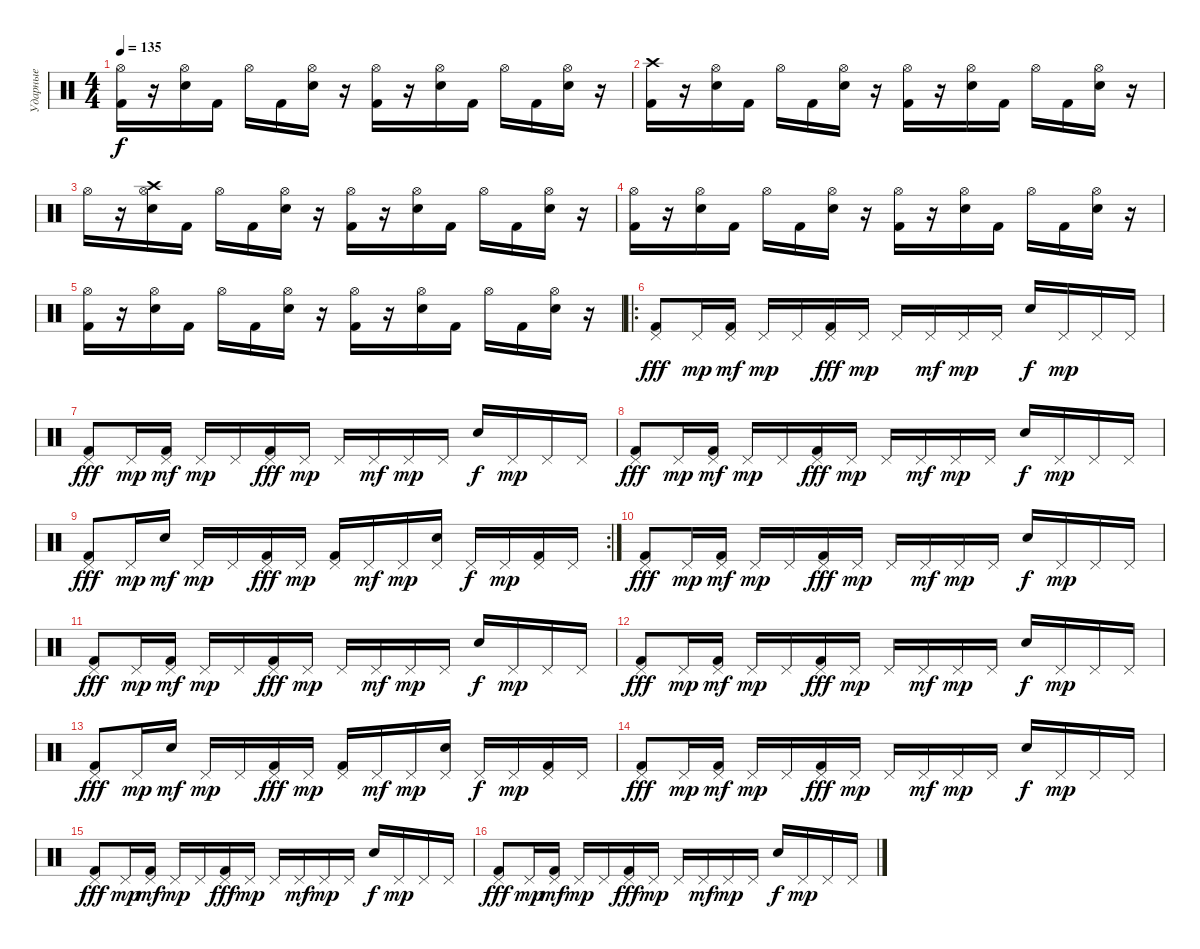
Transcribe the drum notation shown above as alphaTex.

\track ("Ударные" "Ударные") {instrument percussion}
\staff {score}
\articulation defaults
\ts (4 4)
\tempo 135
\clef neutral
\ks c
("Hi-Hat (open)" "Kick (hit) 2").16{dy f} r.16 ("Hi-Hat (open)" "Electric Snare (hit)").16 "Kick (hit) 2".16 "Hi-Hat (open)".16 "Kick (hit) 2".16 ("Hi-Hat (open)" "Electric Snare (hit)").16 r.16 ("Hi-Hat (open)" "Kick (hit) 2").16 r.16 ("Hi-Hat (open)" "Electric Snare (hit)").16 "Kick (hit) 2".16 "Hi-Hat (open)".16 "Kick (hit) 2".16 ("Hi-Hat (open)" "Electric Snare (hit)").16 r.16 |
("Crash high (hit)" "Kick (hit) 2").16 r.16 ("Hi-Hat (open)" "Electric Snare (hit)").16 "Kick (hit) 2".16 "Hi-Hat (open)".16 "Kick (hit) 2".16 ("Hi-Hat (open)" "Electric Snare (hit)").16 r.16 ("Hi-Hat (open)" "Kick (hit) 2").16 r.16 ("Hi-Hat (open)" "Electric Snare (hit)").16 "Kick (hit) 2".16 "Hi-Hat (open)".16 "Kick (hit) 2".16 ("Hi-Hat (open)" "Electric Snare (hit)").16 r.16 |
"Hi-Hat (open)".16 r.16 ("Hi-Hat (open)" "Crash high (hit)" "Electric Snare (hit)").16 "Kick (hit) 2".16 "Hi-Hat (open)".16 "Kick (hit) 2".16 ("Hi-Hat (open)" "Electric Snare (hit)").16 r.16 ("Hi-Hat (open)" "Kick (hit) 2").16 r.16 ("Hi-Hat (open)" "Electric Snare (hit)").16 "Kick (hit) 2".16 "Hi-Hat (open)".16 "Kick (hit) 2".16 ("Hi-Hat (open)" "Electric Snare (hit)").16 r.16 |
("Hi-Hat (open)" "Kick (hit) 2").16 r.16 ("Hi-Hat (open)" "Electric Snare (hit)").16 "Kick (hit) 2".16 "Hi-Hat (open)".16 "Kick (hit) 2".16 ("Hi-Hat (open)" "Electric Snare (hit)").16 r.16 ("Hi-Hat (open)" "Kick (hit) 2").16 r.16 ("Hi-Hat (open)" "Electric Snare (hit)").16 "Kick (hit) 2".16 "Hi-Hat (open)".16 "Kick (hit) 2".16 ("Hi-Hat (open)" "Electric Snare (hit)").16 r.16 |
("Hi-Hat (open)" "Kick (hit) 2").16 r.16 ("Hi-Hat (open)" "Electric Snare (hit)").16 "Kick (hit) 2".16 "Hi-Hat (open)".16 "Kick (hit) 2".16 ("Hi-Hat (open)" "Electric Snare (hit)").16 r.16 ("Hi-Hat (open)" "Kick (hit) 2").16 r.16 ("Hi-Hat (open)" "Electric Snare (hit)").16 "Kick (hit) 2".16 "Hi-Hat (open)".16 "Kick (hit) 2".16 ("Hi-Hat (open)" "Electric Snare (hit)").16 r.16 |
\ro
("Pedal Hi-Hat (hit)" "Kick (hit) 2").8{dy fff volume 16} "Pedal Hi-Hat (hit)".16{dy mp} ("Pedal Hi-Hat (hit)" "Kick (hit) 2").16{dy mf} "Pedal Hi-Hat (hit)".16{dy mp} "Pedal Hi-Hat (hit)".16 ("Pedal Hi-Hat (hit)" "Kick (hit) 2").16{dy fff} "Pedal Hi-Hat (hit)".16{dy mp} "Pedal Hi-Hat (hit)".16 "Pedal Hi-Hat (hit)".16{dy mf} "Pedal Hi-Hat (hit)".16{dy mp} "Pedal Hi-Hat (hit)".16 "Electric Snare (hit)".16{dy f} "Pedal Hi-Hat (hit)".16{dy mp} "Pedal Hi-Hat (hit)".16 "Pedal Hi-Hat (hit)".16 |
("Pedal Hi-Hat (hit)" "Kick (hit) 2").8{dy fff volume 16} "Pedal Hi-Hat (hit)".16{dy mp} ("Pedal Hi-Hat (hit)" "Kick (hit) 2").16{dy mf} "Pedal Hi-Hat (hit)".16{dy mp} "Pedal Hi-Hat (hit)".16 ("Pedal Hi-Hat (hit)" "Kick (hit) 2").16{dy fff} "Pedal Hi-Hat (hit)".16{dy mp} "Pedal Hi-Hat (hit)".16 "Pedal Hi-Hat (hit)".16{dy mf} "Pedal Hi-Hat (hit)".16{dy mp} "Pedal Hi-Hat (hit)".16 "Electric Snare (hit)".16{dy f} "Pedal Hi-Hat (hit)".16{dy mp} "Pedal Hi-Hat (hit)".16 "Pedal Hi-Hat (hit)".16 |
("Pedal Hi-Hat (hit)" "Kick (hit) 2").8{dy fff volume 16} "Pedal Hi-Hat (hit)".16{dy mp} ("Pedal Hi-Hat (hit)" "Kick (hit) 2").16{dy mf} "Pedal Hi-Hat (hit)".16{dy mp} "Pedal Hi-Hat (hit)".16 ("Pedal Hi-Hat (hit)" "Kick (hit) 2").16{dy fff} "Pedal Hi-Hat (hit)".16{dy mp} "Pedal Hi-Hat (hit)".16 "Pedal Hi-Hat (hit)".16{dy mf} "Pedal Hi-Hat (hit)".16{dy mp} "Pedal Hi-Hat (hit)".16 "Electric Snare (hit)".16{dy f} "Pedal Hi-Hat (hit)".16{dy mp} "Pedal Hi-Hat (hit)".16 "Pedal Hi-Hat (hit)".16 |
\rc 2
("Pedal Hi-Hat (hit)" "Kick (hit) 2").8{dy fff volume 16} "Pedal Hi-Hat (hit)".16{dy mp} "Electric Snare (hit)".16{dy mf} "Pedal Hi-Hat (hit)".16{dy mp} "Pedal Hi-Hat (hit)".16 ("Pedal Hi-Hat (hit)" "Kick (hit) 2").16{dy fff} "Pedal Hi-Hat (hit)".16{dy mp} ("Pedal Hi-Hat (hit)" "Kick (hit) 2").16 "Pedal Hi-Hat (hit)".16{dy mf} "Pedal Hi-Hat (hit)".16{dy mp} ("Pedal Hi-Hat (hit)" "Electric Snare (hit)").16 "Pedal Hi-Hat (hit)".16{dy f} "Pedal Hi-Hat (hit)".16{dy mp} ("Pedal Hi-Hat (hit)" "Kick (hit) 2").16 "Pedal Hi-Hat (hit)".16 |
("Pedal Hi-Hat (hit)" "Kick (hit) 2").8{dy fff volume 16} "Pedal Hi-Hat (hit)".16{dy mp} ("Pedal Hi-Hat (hit)" "Kick (hit) 2").16{dy mf} "Pedal Hi-Hat (hit)".16{dy mp} "Pedal Hi-Hat (hit)".16 ("Pedal Hi-Hat (hit)" "Kick (hit) 2").16{dy fff} "Pedal Hi-Hat (hit)".16{dy mp} "Pedal Hi-Hat (hit)".16 "Pedal Hi-Hat (hit)".16{dy mf} "Pedal Hi-Hat (hit)".16{dy mp} "Pedal Hi-Hat (hit)".16 "Electric Snare (hit)".16{dy f} "Pedal Hi-Hat (hit)".16{dy mp} "Pedal Hi-Hat (hit)".16 "Pedal Hi-Hat (hit)".16 |
("Pedal Hi-Hat (hit)" "Kick (hit) 2").8{dy fff volume 16} "Pedal Hi-Hat (hit)".16{dy mp} ("Pedal Hi-Hat (hit)" "Kick (hit) 2").16{dy mf} "Pedal Hi-Hat (hit)".16{dy mp} "Pedal Hi-Hat (hit)".16 ("Pedal Hi-Hat (hit)" "Kick (hit) 2").16{dy fff} "Pedal Hi-Hat (hit)".16{dy mp} "Pedal Hi-Hat (hit)".16 "Pedal Hi-Hat (hit)".16{dy mf} "Pedal Hi-Hat (hit)".16{dy mp} "Pedal Hi-Hat (hit)".16 "Electric Snare (hit)".16{dy f} "Pedal Hi-Hat (hit)".16{dy mp} "Pedal Hi-Hat (hit)".16 "Pedal Hi-Hat (hit)".16 |
("Pedal Hi-Hat (hit)" "Kick (hit) 2").8{dy fff volume 16} "Pedal Hi-Hat (hit)".16{dy mp} ("Pedal Hi-Hat (hit)" "Kick (hit) 2").16{dy mf} "Pedal Hi-Hat (hit)".16{dy mp} "Pedal Hi-Hat (hit)".16 ("Pedal Hi-Hat (hit)" "Kick (hit) 2").16{dy fff} "Pedal Hi-Hat (hit)".16{dy mp} "Pedal Hi-Hat (hit)".16 "Pedal Hi-Hat (hit)".16{dy mf} "Pedal Hi-Hat (hit)".16{dy mp} "Pedal Hi-Hat (hit)".16 "Electric Snare (hit)".16{dy f} "Pedal Hi-Hat (hit)".16{dy mp} "Pedal Hi-Hat (hit)".16 "Pedal Hi-Hat (hit)".16 |
("Pedal Hi-Hat (hit)" "Kick (hit) 2").8{dy fff volume 16} "Pedal Hi-Hat (hit)".16{dy mp} "Electric Snare (hit)".16{dy mf} "Pedal Hi-Hat (hit)".16{dy mp} "Pedal Hi-Hat (hit)".16 ("Pedal Hi-Hat (hit)" "Kick (hit) 2").16{dy fff} "Pedal Hi-Hat (hit)".16{dy mp} ("Pedal Hi-Hat (hit)" "Kick (hit) 2").16 "Pedal Hi-Hat (hit)".16{dy mf} "Pedal Hi-Hat (hit)".16{dy mp} ("Pedal Hi-Hat (hit)" "Electric Snare (hit)").16 "Pedal Hi-Hat (hit)".16{dy f} "Pedal Hi-Hat (hit)".16{dy mp} ("Pedal Hi-Hat (hit)" "Kick (hit) 2").16 "Pedal Hi-Hat (hit)".16 |
("Pedal Hi-Hat (hit)" "Kick (hit) 2").8{dy fff volume 16} "Pedal Hi-Hat (hit)".16{dy mp} ("Pedal Hi-Hat (hit)" "Kick (hit) 2").16{dy mf} "Pedal Hi-Hat (hit)".16{dy mp} "Pedal Hi-Hat (hit)".16 ("Pedal Hi-Hat (hit)" "Kick (hit) 2").16{dy fff} "Pedal Hi-Hat (hit)".16{dy mp} "Pedal Hi-Hat (hit)".16 "Pedal Hi-Hat (hit)".16{dy mf} "Pedal Hi-Hat (hit)".16{dy mp} "Pedal Hi-Hat (hit)".16 "Electric Snare (hit)".16{dy f} "Pedal Hi-Hat (hit)".16{dy mp} "Pedal Hi-Hat (hit)".16 "Pedal Hi-Hat (hit)".16 |
("Pedal Hi-Hat (hit)" "Kick (hit) 2").8{dy fff volume 16} "Pedal Hi-Hat (hit)".16{dy mp} ("Pedal Hi-Hat (hit)" "Kick (hit) 2").16{dy mf} "Pedal Hi-Hat (hit)".16{dy mp} "Pedal Hi-Hat (hit)".16 ("Pedal Hi-Hat (hit)" "Kick (hit) 2").16{dy fff} "Pedal Hi-Hat (hit)".16{dy mp} "Pedal Hi-Hat (hit)".16 "Pedal Hi-Hat (hit)".16{dy mf} "Pedal Hi-Hat (hit)".16{dy mp} "Pedal Hi-Hat (hit)".16 "Electric Snare (hit)".16{dy f} "Pedal Hi-Hat (hit)".16{dy mp} "Pedal Hi-Hat (hit)".16 "Pedal Hi-Hat (hit)".16 |
("Pedal Hi-Hat (hit)" "Kick (hit) 2").8{dy fff volume 16} "Pedal Hi-Hat (hit)".16{dy mp} ("Pedal Hi-Hat (hit)" "Kick (hit) 2").16{dy mf} "Pedal Hi-Hat (hit)".16{dy mp} "Pedal Hi-Hat (hit)".16 ("Pedal Hi-Hat (hit)" "Kick (hit) 2").16{dy fff} "Pedal Hi-Hat (hit)".16{dy mp} "Pedal Hi-Hat (hit)".16 "Pedal Hi-Hat (hit)".16{dy mf} "Pedal Hi-Hat (hit)".16{dy mp} "Pedal Hi-Hat (hit)".16 "Electric Snare (hit)".16{dy f} "Pedal Hi-Hat (hit)".16{dy mp} "Pedal Hi-Hat (hit)".16 "Pedal Hi-Hat (hit)".16
